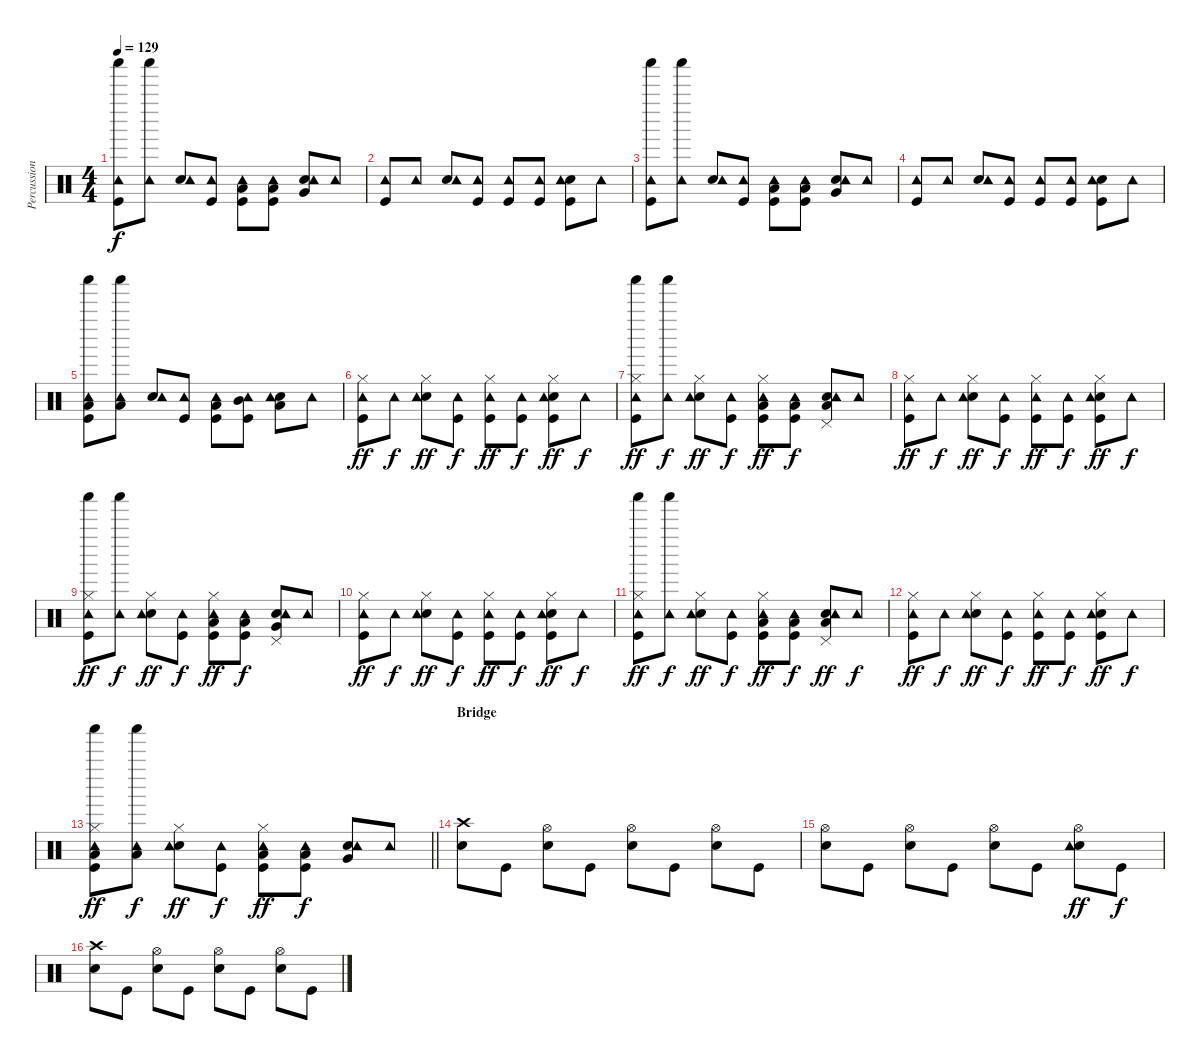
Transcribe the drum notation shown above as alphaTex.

\track ("Percussion" "Percussion") {instrument percussion}
\staff {score}
\articulation defaults
\ts (4 4)
\tempo 129
\clef neutral
\ks c
("Shaker (hit)" "Tambourine (hit)" "Kick (hit)").8{dy f} ("Shaker (hit)" "Tambourine (hit)").8 ("Snare (hit) 2" "Tambourine (hit)").8 ("Tambourine (hit)" "Kick (hit)").8 ("Low Tom (hit)" "Tambourine (hit)" "Kick (hit)").8 ("Low Tom (hit)" "Tambourine (hit)" "Kick (hit)").8 ("Very Low Tom (hit)" "Snare (hit) 2" "Tambourine (hit)").8 "Tambourine (hit)".8 |
("Tambourine (hit)" "Kick (hit)").8 "Tambourine (hit)".8 ("Snare (hit) 2" "Tambourine (hit)").8 ("Tambourine (hit)" "Kick (hit)").8 ("Tambourine (hit)" "Kick (hit)").8 ("Tambourine (hit)" "Kick (hit)").8 ("Snare (hit) 2" "Tambourine (hit)" "Kick (hit)").8 "Tambourine (hit)".8 |
("Shaker (hit)" "Tambourine (hit)" "Kick (hit)").8 ("Shaker (hit)" "Tambourine (hit)").8 ("Snare (hit) 2" "Tambourine (hit)").8 ("Tambourine (hit)" "Kick (hit)").8 ("Low Tom (hit)" "Tambourine (hit)" "Kick (hit)").8 ("Low Tom (hit)" "Tambourine (hit)" "Kick (hit)").8 ("Very Low Tom (hit)" "Snare (hit) 2" "Tambourine (hit)").8 "Tambourine (hit)".8 |
("Tambourine (hit)" "Kick (hit)").8 "Tambourine (hit)".8 ("Snare (hit) 2" "Tambourine (hit)").8 ("Tambourine (hit)" "Kick (hit)").8 ("Tambourine (hit)" "Kick (hit)").8 ("Tambourine (hit)" "Kick (hit)").8 ("Snare (hit) 2" "Tambourine (hit)" "Kick (hit)").8 "Tambourine (hit)".8 |
("Low Tom (hit)" "Shaker (hit)" "Tambourine (hit)" "Kick (hit)").8 ("Low Tom (hit)" "Shaker (hit)" "Tambourine (hit)").8 ("Snare (hit) 2" "Tambourine (hit)").8 ("Tambourine (hit)" "Kick (hit)").8 ("Low Tom (hit)" "Tambourine (hit)" "Kick (hit)").8 ("Mid Tom (hit)" "Tambourine (hit)" "Kick (hit)").8 ("Low Tom (hit)" "Snare (hit) 2" "Tambourine (hit)").8 "Tambourine (hit)".8 |
("Hi-Hat (closed)" "Tambourine (hit)" "Kick (hit)").8{dy ff} "Tambourine (hit)".8{dy f} ("Hi-Hat (closed)" "Snare (hit) 2" "Tambourine (hit)").8{dy ff} ("Tambourine (hit)" "Kick (hit)").8{dy f} ("Hi-Hat (closed)" "Tambourine (hit)" "Kick (hit)").8{dy ff} ("Tambourine (hit)" "Kick (hit)").8{dy f} ("Hi-Hat (closed)" "Snare (hit) 2" "Tambourine (hit)" "Kick (hit)").8{dy ff} "Tambourine (hit)".8{dy f} |
("Shaker (hit)" "Hi-Hat (closed)" "Tambourine (hit)" "Kick (hit)").8{dy ff} ("Shaker (hit)" "Tambourine (hit)").8{dy f} ("Hi-Hat (closed)" "Snare (hit) 2" "Tambourine (hit)").8{dy ff} ("Tambourine (hit)" "Kick (hit)").8{dy f} ("Low Tom (hit)" "Hi-Hat (closed)" "Tambourine (hit)" "Kick (hit)").8{dy ff} ("Low Tom (hit)" "Tambourine (hit)" "Kick (hit)").8{dy f} ("Low Floor Tom (hit)" "Pedal Hi-Hat (hit)" "Snare (hit) 2" "Tambourine (hit)").8 "Tambourine (hit)".8 |
("Hi-Hat (closed)" "Tambourine (hit)" "Kick (hit)").8{dy ff} "Tambourine (hit)".8{dy f} ("Hi-Hat (closed)" "Snare (hit) 2" "Tambourine (hit)").8{dy ff} ("Tambourine (hit)" "Kick (hit)").8{dy f} ("Hi-Hat (closed)" "Tambourine (hit)" "Kick (hit)").8{dy ff} ("Tambourine (hit)" "Kick (hit)").8{dy f} ("Hi-Hat (closed)" "Snare (hit) 2" "Tambourine (hit)" "Kick (hit)").8{dy ff} "Tambourine (hit)".8{dy f} |
("Shaker (hit)" "Hi-Hat (closed)" "Tambourine (hit)" "Kick (hit)").8{dy ff} ("Shaker (hit)" "Tambourine (hit)").8{dy f} ("Hi-Hat (closed)" "Snare (hit) 2" "Tambourine (hit)").8{dy ff} ("Tambourine (hit)" "Kick (hit)").8{dy f} ("Low Tom (hit)" "Hi-Hat (closed)" "Tambourine (hit)" "Kick (hit)").8{dy ff} ("Low Tom (hit)" "Tambourine (hit)" "Kick (hit)").8{dy f} ("Very Low Tom (hit)" "Pedal Hi-Hat (hit)" "Snare (hit) 2" "Tambourine (hit)").8 "Tambourine (hit)".8 |
("Hi-Hat (closed)" "Tambourine (hit)" "Kick (hit)").8{dy ff} "Tambourine (hit)".8{dy f} ("Hi-Hat (closed)" "Snare (hit) 2" "Tambourine (hit)").8{dy ff} ("Tambourine (hit)" "Kick (hit)").8{dy f} ("Hi-Hat (closed)" "Tambourine (hit)" "Kick (hit)").8{dy ff} ("Tambourine (hit)" "Kick (hit)").8{dy f} ("Hi-Hat (closed)" "Snare (hit) 2" "Tambourine (hit)" "Kick (hit)").8{dy ff} "Tambourine (hit)".8{dy f} |
("Shaker (hit)" "Hi-Hat (closed)" "Tambourine (hit)" "Kick (hit)").8{dy ff} ("Shaker (hit)" "Tambourine (hit)").8{dy f} ("Hi-Hat (closed)" "Snare (hit) 2" "Tambourine (hit)").8{dy ff} ("Tambourine (hit)" "Kick (hit)").8{dy f} ("Low Tom (hit)" "Hi-Hat (closed)" "Tambourine (hit)" "Kick (hit)").8{dy ff} ("Low Tom (hit)" "Tambourine (hit)" "Kick (hit)").8{dy f} ("Low Floor Tom (hit)" "Pedal Hi-Hat (hit)" "Snare (hit) 2" "Tambourine (hit)").8{dy ff} "Tambourine (hit)".8{dy f} |
("Hi-Hat (closed)" "Tambourine (hit)" "Kick (hit)").8{dy ff} "Tambourine (hit)".8{dy f} ("Hi-Hat (closed)" "Snare (hit) 2" "Tambourine (hit)").8{dy ff} ("Tambourine (hit)" "Kick (hit)").8{dy f} ("Hi-Hat (closed)" "Tambourine (hit)" "Kick (hit)").8{dy ff} ("Tambourine (hit)" "Kick (hit)").8{dy f} ("Hi-Hat (closed)" "Snare (hit) 2" "Tambourine (hit)" "Kick (hit)").8{dy ff} "Tambourine (hit)".8{dy f} |
\barLineRight lightlight
("Low Tom (hit)" "Shaker (hit)" "Hi-Hat (closed)" "Tambourine (hit)" "Kick (hit)").8{dy ff} ("Low Tom (hit)" "Shaker (hit)" "Tambourine (hit)").8{dy f} ("Hi-Hat (closed)" "Snare (hit) 2" "Tambourine (hit)").8{dy ff} ("Tambourine (hit)" "Kick (hit)").8{dy f} ("Low Tom (hit)" "Hi-Hat (closed)" "Tambourine (hit)" "Kick (hit)").8{dy ff} ("Low Tom (hit)" "Tambourine (hit)" "Kick (hit)").8{dy f} ("Very Low Tom (hit)" "Snare (hit) 2" "Tambourine (hit)").8 "Tambourine (hit)".8 |
\section ("" "Bridge")
("Crash high (hit)" "Snare (hit) 2").8 "Kick (hit)".8 ("Hi-Hat (open)" "Snare (hit) 2").8 "Kick (hit)".8 ("Hi-Hat (open)" "Snare (hit) 2").8 "Kick (hit)".8 ("Hi-Hat (open)" "Snare (hit) 2").8 "Kick (hit)".8 |
("Hi-Hat (open)" "Snare (hit) 2").8 "Kick (hit)".8 ("Hi-Hat (open)" "Snare (hit) 2").8 "Kick (hit)".8 ("Hi-Hat (open)" "Snare (hit) 2").8 "Kick (hit)".8 ("Hi-Hat (open)" "Snare (hit) 2" "Tambourine (hit)").8{dy ff} "Kick (hit)".8{dy f} |
("Crash high (hit)" "Snare (hit) 2").8 "Kick (hit)".8 ("Hi-Hat (open)" "Snare (hit) 2").8 "Kick (hit)".8 ("Hi-Hat (open)" "Snare (hit) 2").8 "Kick (hit)".8 ("Hi-Hat (open)" "Snare (hit) 2").8 "Kick (hit)".8
